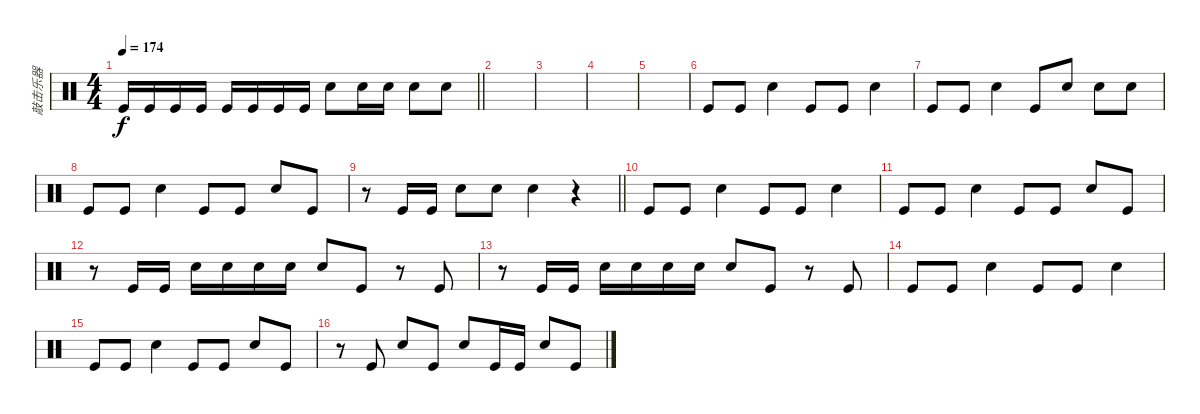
\track ("敲击乐器" "敲击乐器") {instrument percussion}
\staff {score}
\articulation defaults
\ts (4 4)
\tempo 174
\clef neutral
\barLineRight lightlight
\ks c "Kick (hit)".16{dy f} "Kick (hit)".16 "Kick (hit)".16 "Kick (hit)".16 "Kick (hit)".16 "Kick (hit)".16 "Kick (hit)".16 "Kick (hit)".16 "Snare (hit) 2".8 "Snare (hit) 2".16 "Snare (hit) 2".16 "Snare (hit) 2".8 "Snare (hit) 2".8
|
|
|
|
|
"Kick (hit)".8 "Kick (hit)".8 "Snare (hit) 2".4 "Kick (hit)".8 "Kick (hit)".8 "Snare (hit) 2".4 |
"Kick (hit)".8 "Kick (hit)".8 "Snare (hit) 2".4 "Kick (hit)".8 "Snare (hit) 2".8 "Snare (hit) 2".8 "Snare (hit) 2".8 |
"Kick (hit)".8 "Kick (hit)".8 "Snare (hit) 2".4 "Kick (hit)".8 "Kick (hit)".8 "Snare (hit) 2".8 "Kick (hit)".8 |
\barLineRight lightlight
r.8 "Kick (hit)".16 "Kick (hit)".16 "Snare (hit) 2".8 "Snare (hit) 2".8 "Snare (hit) 2".4 r.4 |
"Kick (hit)".8 "Kick (hit)".8 "Snare (hit) 2".4 "Kick (hit)".8 "Kick (hit)".8 "Snare (hit) 2".4 |
"Kick (hit)".8 "Kick (hit)".8 "Snare (hit) 2".4 "Kick (hit)".8 "Kick (hit)".8 "Snare (hit) 2".8 "Kick (hit)".8 |
r.8 "Kick (hit)".16 "Kick (hit)".16 "Snare (hit) 2".16 "Snare (hit) 2".16 "Snare (hit) 2".16 "Snare (hit) 2".16 "Snare (hit) 2".8 "Kick (hit)".8 r.8 "Kick (hit)".8 |
r.8 "Kick (hit)".16 "Kick (hit)".16 "Snare (hit) 2".16 "Snare (hit) 2".16 "Snare (hit) 2".16 "Snare (hit) 2".16 "Snare (hit) 2".8 "Kick (hit)".8 r.8 "Kick (hit)".8 |
"Kick (hit)".8 "Kick (hit)".8 "Snare (hit) 2".4 "Kick (hit)".8 "Kick (hit)".8 "Snare (hit) 2".4 |
"Kick (hit)".8 "Kick (hit)".8 "Snare (hit) 2".4 "Kick (hit)".8 "Kick (hit)".8 "Snare (hit) 2".8 "Kick (hit)".8 |
r.8 "Kick (hit)".8 "Snare (hit) 2".8 "Kick (hit)".8 "Snare (hit) 2".8 "Kick (hit)".16 "Kick (hit)".16 "Snare (hit) 2".8 "Kick (hit)".8
